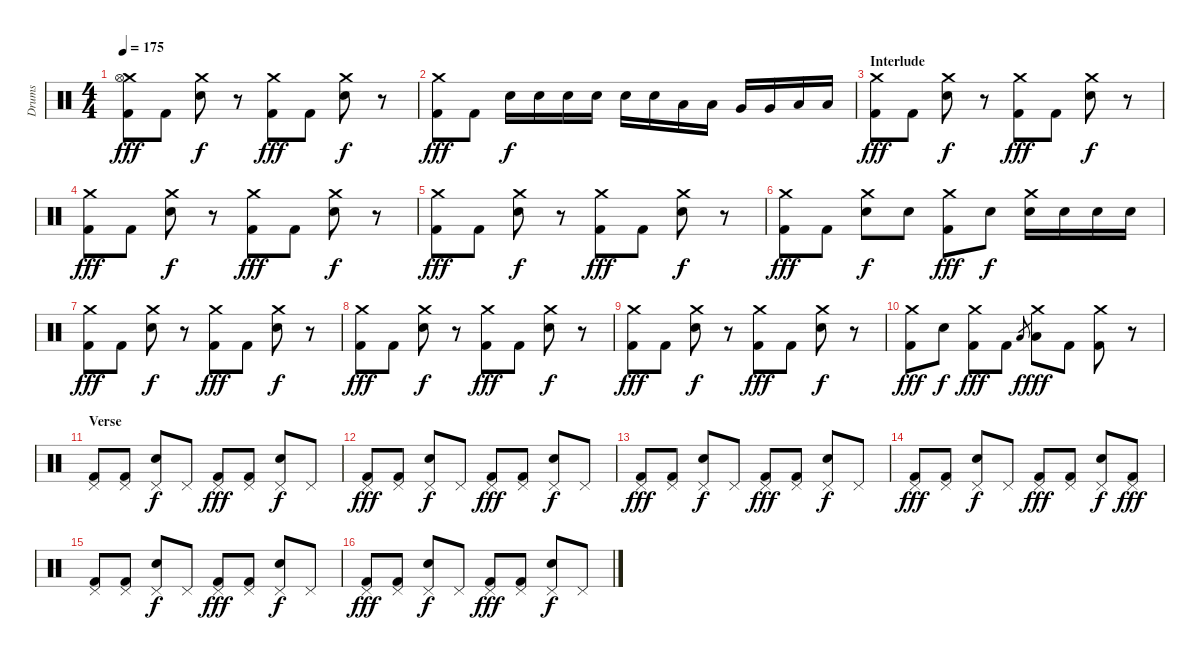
\track ("Drums" "Drums") {instrument percussion}
\staff {score}
\articulation defaults
\ts (4 4)
\tempo 175
\clef neutral
\ks c
("Crash medium (hit)" "Hi-Hat (open)" "Kick (hit) 2").8{dy fff} "Kick (hit) 2".8 ("Crash medium (hit)" "Electric Snare (hit)").8{dy f} r.8 ("Crash medium (hit)" "Kick (hit) 2").8{dy fff} "Kick (hit) 2".8 ("Crash medium (hit)" "Electric Snare (hit)").8{dy f} r.8 |
("Crash medium (hit)" "Kick (hit) 2").8{dy fff} "Kick (hit) 2".8 "Electric Snare (hit)".16{dy f} "Electric Snare (hit)".16 "Electric Snare (hit)".16 "Electric Snare (hit)".16 "Electric Snare (hit)".16 "Electric Snare (hit)".16 "Low Tom (hit)".16 "Low Tom (hit)".16 "Very Low Tom (hit)".16 "Very Low Tom (hit)".16 "Low Floor Tom (hit)".16 "Low Floor Tom (hit)".16 |
\section ("" "Interlude")
("Crash medium (hit)" "Kick (hit) 2").8{dy fff} "Kick (hit) 2".8 ("Crash medium (hit)" "Electric Snare (hit)").8{dy f} r.8 ("Crash medium (hit)" "Kick (hit) 2").8{dy fff} "Kick (hit) 2".8 ("Crash medium (hit)" "Electric Snare (hit)").8{dy f} r.8 |
("Crash medium (hit)" "Kick (hit) 2").8{dy fff} "Kick (hit) 2".8 ("Crash medium (hit)" "Electric Snare (hit)").8{dy f} r.8 ("Crash medium (hit)" "Kick (hit) 2").8{dy fff} "Kick (hit) 2".8 ("Crash medium (hit)" "Electric Snare (hit)").8{dy f} r.8 |
("Crash medium (hit)" "Kick (hit) 2").8{dy fff} "Kick (hit) 2".8 ("Crash medium (hit)" "Electric Snare (hit)").8{dy f} r.8 ("Crash medium (hit)" "Kick (hit) 2").8{dy fff} "Kick (hit) 2".8 ("Crash medium (hit)" "Electric Snare (hit)").8{dy f} r.8 |
("Crash medium (hit)" "Kick (hit) 2").8{dy fff} "Kick (hit) 2".8 ("Crash medium (hit)" "Electric Snare (hit)").8{dy f} "Electric Snare (hit)".8 ("Crash medium (hit)" "Kick (hit) 2").8{dy fff} "Electric Snare (hit)".8{dy f} ("Crash medium (hit)" "Electric Snare (hit)").16 "Electric Snare (hit)".16 "Electric Snare (hit)".16 "Electric Snare (hit)".16 |
("Crash medium (hit)" "Kick (hit) 2").8{dy fff} "Kick (hit) 2".8 ("Crash medium (hit)" "Electric Snare (hit)").8{dy f} r.8 ("Crash medium (hit)" "Kick (hit) 2").8{dy fff} "Kick (hit) 2".8 ("Crash medium (hit)" "Electric Snare (hit)").8{dy f} r.8 |
("Crash medium (hit)" "Kick (hit) 2").8{dy fff} "Kick (hit) 2".8 ("Crash medium (hit)" "Electric Snare (hit)").8{dy f} r.8 ("Crash medium (hit)" "Kick (hit) 2").8{dy fff} "Kick (hit) 2".8 ("Crash medium (hit)" "Electric Snare (hit)").8{dy f} r.8 |
("Crash medium (hit)" "Kick (hit) 2").8{dy fff} "Kick (hit) 2".8 ("Crash medium (hit)" "Electric Snare (hit)").8{dy f} r.8 ("Crash medium (hit)" "Kick (hit) 2").8{dy fff} "Kick (hit) 2".8 ("Crash medium (hit)" "Electric Snare (hit)").8{dy f} r.8 |
("Crash medium (hit)" "Kick (hit) 2").8{dy fff} "Electric Snare (hit)".8{dy f} ("Crash medium (hit)" "Kick (hit) 2").8{dy fff} "Kick (hit) 2".8 "Low Floor Tom (hit)".8{gr dy f} ("Crash medium (hit)" "Low Floor Tom (hit)").8{dy fff} "Kick (hit) 2".8 ("Crash medium (hit)" "Kick (hit) 2").8 r.8 |
\section ("" "Verse")
("Pedal Hi-Hat (hit)" "Kick (hit) 2").8 ("Pedal Hi-Hat (hit)" "Kick (hit) 2").8 ("Pedal Hi-Hat (hit)" "Electric Snare (hit)").8{dy f} "Pedal Hi-Hat (hit)".8 ("Pedal Hi-Hat (hit)" "Kick (hit) 2").8{dy fff} ("Pedal Hi-Hat (hit)" "Kick (hit) 2").8 ("Pedal Hi-Hat (hit)" "Electric Snare (hit)").8{dy f} "Pedal Hi-Hat (hit)".8 |
("Pedal Hi-Hat (hit)" "Kick (hit) 2").8{dy fff} ("Pedal Hi-Hat (hit)" "Kick (hit) 2").8 ("Pedal Hi-Hat (hit)" "Electric Snare (hit)").8{dy f} "Pedal Hi-Hat (hit)".8 ("Pedal Hi-Hat (hit)" "Kick (hit) 2").8{dy fff} ("Pedal Hi-Hat (hit)" "Kick (hit) 2").8 ("Pedal Hi-Hat (hit)" "Electric Snare (hit)").8{dy f} "Pedal Hi-Hat (hit)".8 |
("Pedal Hi-Hat (hit)" "Kick (hit) 2").8{dy fff} ("Pedal Hi-Hat (hit)" "Kick (hit) 2").8 ("Pedal Hi-Hat (hit)" "Electric Snare (hit)").8{dy f} "Pedal Hi-Hat (hit)".8 ("Pedal Hi-Hat (hit)" "Kick (hit) 2").8{dy fff} ("Pedal Hi-Hat (hit)" "Kick (hit) 2").8 ("Pedal Hi-Hat (hit)" "Electric Snare (hit)").8{dy f} "Pedal Hi-Hat (hit)".8 |
("Pedal Hi-Hat (hit)" "Kick (hit) 2").8{dy fff} ("Pedal Hi-Hat (hit)" "Kick (hit) 2").8 ("Pedal Hi-Hat (hit)" "Electric Snare (hit)").8{dy f} "Pedal Hi-Hat (hit)".8 ("Pedal Hi-Hat (hit)" "Kick (hit) 2").8{dy fff} ("Pedal Hi-Hat (hit)" "Kick (hit) 2").8 ("Pedal Hi-Hat (hit)" "Electric Snare (hit)").8{dy f} ("Pedal Hi-Hat (hit)" "Kick (hit) 2").8{dy fff} |
("Pedal Hi-Hat (hit)" "Kick (hit) 2").8 ("Pedal Hi-Hat (hit)" "Kick (hit) 2").8 ("Pedal Hi-Hat (hit)" "Electric Snare (hit)").8{dy f} "Pedal Hi-Hat (hit)".8 ("Pedal Hi-Hat (hit)" "Kick (hit) 2").8{dy fff} ("Pedal Hi-Hat (hit)" "Kick (hit) 2").8 ("Pedal Hi-Hat (hit)" "Electric Snare (hit)").8{dy f} "Pedal Hi-Hat (hit)".8 |
("Pedal Hi-Hat (hit)" "Kick (hit) 2").8{dy fff} ("Pedal Hi-Hat (hit)" "Kick (hit) 2").8 ("Pedal Hi-Hat (hit)" "Electric Snare (hit)").8{dy f} "Pedal Hi-Hat (hit)".8 ("Pedal Hi-Hat (hit)" "Kick (hit) 2").8{dy fff} ("Pedal Hi-Hat (hit)" "Kick (hit) 2").8 ("Pedal Hi-Hat (hit)" "Electric Snare (hit)").8{dy f} "Pedal Hi-Hat (hit)".8
